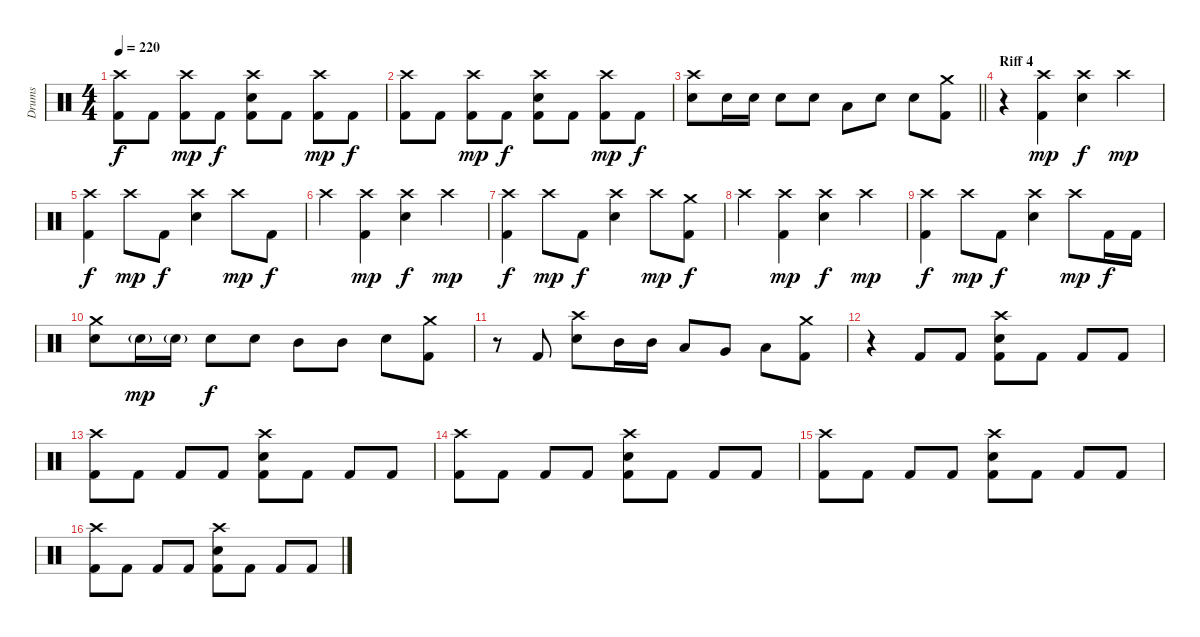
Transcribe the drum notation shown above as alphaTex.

\track ("Drums" "Drums") {instrument percussion}
\staff {score}
\articulation defaults
\ts (4 4)
\tempo 220
\clef neutral
\ks c
("Crash high (hit)" "Kick (hit) 2").8{dy f} "Kick (hit) 2".8 ("Crash high (hit)" "Kick (hit) 2").8{dy mp} "Kick (hit) 2".8{dy f} ("Crash high (hit)" "Electric Snare (hit)" "Kick (hit) 2").8 "Kick (hit) 2".8 ("Crash high (hit)" "Kick (hit) 2").8{dy mp} "Kick (hit) 2".8{dy f} |
("Crash high (hit)" "Kick (hit) 2").8 "Kick (hit) 2".8 ("Crash high (hit)" "Kick (hit) 2").8{dy mp} "Kick (hit) 2".8{dy f} ("Crash high (hit)" "Electric Snare (hit)" "Kick (hit) 2").8 "Kick (hit) 2".8 ("Crash high (hit)" "Kick (hit) 2").8{dy mp} "Kick (hit) 2".8{dy f} |
\barLineRight lightlight
("Crash high (hit)" "Electric Snare (hit)").8 "Electric Snare (hit)".16 "Electric Snare (hit)".16 "Electric Snare (hit)".8 "Electric Snare (hit)".8 "Low Tom (hit)".8 "Electric Snare (hit)".8 "Electric Snare (hit)".8 ("Kick (hit) 2" "Crash medium (hit)").8 |
\section ("" "Riff 4")
r.4 ("Kick (hit) 2" "Crash high (hit)").4{dy mp} ("Electric Snare (hit)" "Crash high (hit)").4{dy f} "Crash high (hit)".4{dy mp} |
("Crash high (hit)" "Kick (hit) 2").4{dy f} "Crash high (hit)".8{dy mp} "Kick (hit) 2".8{dy f} ("Electric Snare (hit)" "Crash high (hit)").4 "Crash high (hit)".8{dy mp} "Kick (hit) 2".8{dy f} |
"Crash high (hit)".4 ("Kick (hit) 2" "Crash high (hit)").4{dy mp} ("Electric Snare (hit)" "Crash high (hit)").4{dy f} "Crash high (hit)".4{dy mp} |
("Crash high (hit)" "Kick (hit) 2").4{dy f} "Crash high (hit)".8{dy mp} "Kick (hit) 2".8{dy f} ("Electric Snare (hit)" "Crash high (hit)").4 "Crash high (hit)".8{dy mp} ("Kick (hit) 2" "Crash medium (hit)").8{dy f} |
"Crash high (hit)".4 ("Kick (hit) 2" "Crash high (hit)").4{dy mp} ("Electric Snare (hit)" "Crash high (hit)").4{dy f} "Crash high (hit)".4{dy mp} |
("Crash high (hit)" "Kick (hit) 2").4{dy f} "Crash high (hit)".8{dy mp} "Kick (hit) 2".8{dy f} ("Electric Snare (hit)" "Crash high (hit)").4 "Crash high (hit)".8{dy mp} "Kick (hit) 2".16{dy f} "Kick (hit) 2".16 |
("Electric Snare (hit)" "Crash medium (hit)").8 "Electric Snare (hit)"{g}.16{dy mp} "Electric Snare (hit)"{g}.16 "Electric Snare (hit)".8{dy f} "Electric Snare (hit)".8 "Mid Tom (hit)".8 "Mid Tom (hit)".8 "Electric Snare (hit)".8 ("Kick (hit) 2" "Crash medium (hit)").8 |
r.8 "Kick (hit) 2".8 ("Electric Snare (hit)" "Crash high (hit)").8 "Mid Tom (hit)".16 "Mid Tom (hit)".16 "Low Tom (hit)".8 "Very Low Tom (hit)".8 "Low Floor Tom (hit)".8 ("Crash medium (hit)" "Kick (hit) 2").8 |
r.4 "Kick (hit) 2".8 "Kick (hit) 2".8 ("Crash high (hit)" "Kick (hit) 2" "Electric Snare (hit)").8 "Kick (hit) 2".8 "Kick (hit) 2".8 "Kick (hit) 2".8 |
("Crash high (hit)" "Kick (hit) 2").8 "Kick (hit) 2".8 "Kick (hit) 2".8 "Kick (hit) 2".8 ("Crash high (hit)" "Electric Snare (hit)" "Kick (hit) 2").8 "Kick (hit) 2".8 "Kick (hit) 2".8 "Kick (hit) 2".8 |
("Crash high (hit)" "Kick (hit) 2").8 "Kick (hit) 2".8 "Kick (hit) 2".8 "Kick (hit) 2".8 ("Crash high (hit)" "Electric Snare (hit)" "Kick (hit) 2").8 "Kick (hit) 2".8 "Kick (hit) 2".8 "Kick (hit) 2".8 |
("Crash high (hit)" "Kick (hit) 2").8 "Kick (hit) 2".8 "Kick (hit) 2".8 "Kick (hit) 2".8 ("Crash high (hit)" "Electric Snare (hit)" "Kick (hit) 2").8 "Kick (hit) 2".8 "Kick (hit) 2".8 "Kick (hit) 2".8 |
("Crash high (hit)" "Kick (hit) 2").8 "Kick (hit) 2".8 "Kick (hit) 2".8 "Kick (hit) 2".8 ("Crash high (hit)" "Electric Snare (hit)" "Kick (hit) 2").8 "Kick (hit) 2".8 "Kick (hit) 2".8 "Kick (hit) 2".8
